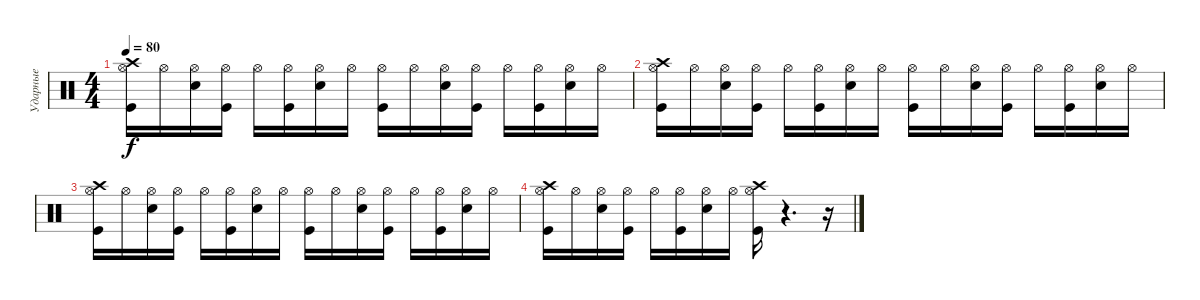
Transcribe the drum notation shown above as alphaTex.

\track ("Ударные" "Ударные") {instrument percussion}
\staff {score}
\articulation defaults
\ts (4 4)
\tempo 80
\clef neutral
\ks c
("Kick (hit)" "Crash high (hit)" "Hi-Hat (open)").16{dy f} "Hi-Hat (open)".16 ("Electric Snare (hit)" "Hi-Hat (open)").16 ("Kick (hit)" "Hi-Hat (open)").16 "Hi-Hat (open)".16 ("Hi-Hat (open)" "Kick (hit)").16 ("Hi-Hat (open)" "Electric Snare (hit)").16 "Hi-Hat (open)".16 ("Kick (hit)" "Hi-Hat (open)").16 "Hi-Hat (open)".16 ("Electric Snare (hit)" "Hi-Hat (open)").16 ("Kick (hit)" "Hi-Hat (open)").16 "Hi-Hat (open)".16 ("Hi-Hat (open)" "Kick (hit)").16 ("Hi-Hat (open)" "Electric Snare (hit)").16 "Hi-Hat (open)".16 |
("Kick (hit)" "Crash high (hit)" "Hi-Hat (open)").16 "Hi-Hat (open)".16 ("Electric Snare (hit)" "Hi-Hat (open)").16 ("Kick (hit)" "Hi-Hat (open)").16 "Hi-Hat (open)".16 ("Hi-Hat (open)" "Kick (hit)").16 ("Hi-Hat (open)" "Electric Snare (hit)").16 "Hi-Hat (open)".16 ("Kick (hit)" "Hi-Hat (open)").16 "Hi-Hat (open)".16 ("Electric Snare (hit)" "Hi-Hat (open)").16 ("Kick (hit)" "Hi-Hat (open)").16 "Hi-Hat (open)".16 ("Hi-Hat (open)" "Kick (hit)").16 ("Hi-Hat (open)" "Electric Snare (hit)").16 "Hi-Hat (open)".16 |
("Kick (hit)" "Crash high (hit)" "Hi-Hat (open)").16 "Hi-Hat (open)".16 ("Electric Snare (hit)" "Hi-Hat (open)").16 ("Kick (hit)" "Hi-Hat (open)").16 "Hi-Hat (open)".16 ("Hi-Hat (open)" "Kick (hit)").16 ("Hi-Hat (open)" "Electric Snare (hit)").16 "Hi-Hat (open)".16 ("Kick (hit)" "Hi-Hat (open)").16 "Hi-Hat (open)".16 ("Electric Snare (hit)" "Hi-Hat (open)").16 ("Kick (hit)" "Hi-Hat (open)").16 "Hi-Hat (open)".16 ("Hi-Hat (open)" "Kick (hit)").16 ("Hi-Hat (open)" "Electric Snare (hit)").16 "Hi-Hat (open)".16 |
("Kick (hit)" "Crash high (hit)" "Hi-Hat (open)").16 "Hi-Hat (open)".16 ("Electric Snare (hit)" "Hi-Hat (open)").16 ("Kick (hit)" "Hi-Hat (open)").16 "Hi-Hat (open)".16 ("Hi-Hat (open)" "Kick (hit)").16 ("Hi-Hat (open)" "Electric Snare (hit)").16 "Hi-Hat (open)".16 ("Kick (hit)" "Crash high (hit)" "Hi-Hat (open)").16 r.4{d} r.16
